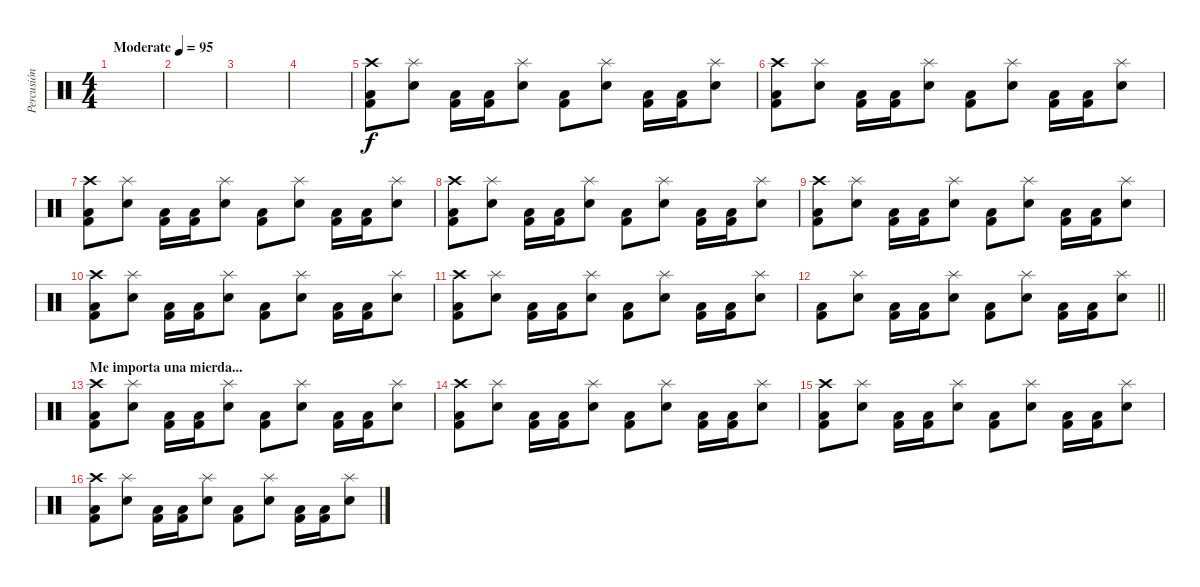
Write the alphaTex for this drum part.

\track ("Percusión" "Percusión") {instrument percussion}
\staff {score}
\articulation defaults
\ts (4 4)
\tempo (95 "Moderate")
\clef neutral
\ks c
|
|
|
|
("Crash high (hit)" "Low Floor Tom (hit)" "Kick (hit) 2").8 ("Splash (hit)" "Electric Snare (hit)").8 ("Low Floor Tom (hit)" "Kick (hit) 2").16 ("Low Floor Tom (hit)" "Kick (hit) 2").16 ("Splash (hit)" "Electric Snare (hit)").8 ("Low Floor Tom (hit)" "Kick (hit) 2").8 ("Splash (hit)" "Electric Snare (hit)").8 ("Low Floor Tom (hit)" "Kick (hit) 2").16 ("Low Floor Tom (hit)" "Kick (hit) 2").16 ("Splash (hit)" "Electric Snare (hit)").8 |
("Crash high (hit)" "Low Floor Tom (hit)" "Kick (hit) 2").8 ("Splash (hit)" "Electric Snare (hit)").8 ("Low Floor Tom (hit)" "Kick (hit) 2").16 ("Low Floor Tom (hit)" "Kick (hit) 2").16 ("Splash (hit)" "Electric Snare (hit)").8 ("Low Floor Tom (hit)" "Kick (hit) 2").8 ("Splash (hit)" "Electric Snare (hit)").8 ("Low Floor Tom (hit)" "Kick (hit) 2").16 ("Low Floor Tom (hit)" "Kick (hit) 2").16 ("Splash (hit)" "Electric Snare (hit)").8 |
("Crash high (hit)" "Low Floor Tom (hit)" "Kick (hit) 2").8 ("Splash (hit)" "Electric Snare (hit)").8 ("Low Floor Tom (hit)" "Kick (hit) 2").16 ("Low Floor Tom (hit)" "Kick (hit) 2").16 ("Splash (hit)" "Electric Snare (hit)").8 ("Low Floor Tom (hit)" "Kick (hit) 2").8 ("Splash (hit)" "Electric Snare (hit)").8 ("Low Floor Tom (hit)" "Kick (hit) 2").16 ("Low Floor Tom (hit)" "Kick (hit) 2").16 ("Splash (hit)" "Electric Snare (hit)").8 |
("Crash high (hit)" "Low Floor Tom (hit)" "Kick (hit) 2").8 ("Splash (hit)" "Electric Snare (hit)").8 ("Low Floor Tom (hit)" "Kick (hit) 2").16 ("Low Floor Tom (hit)" "Kick (hit) 2").16 ("Splash (hit)" "Electric Snare (hit)").8 ("Low Floor Tom (hit)" "Kick (hit) 2").8 ("Splash (hit)" "Electric Snare (hit)").8 ("Low Floor Tom (hit)" "Kick (hit) 2").16 ("Low Floor Tom (hit)" "Kick (hit) 2").16 ("Splash (hit)" "Electric Snare (hit)").8 |
("Crash high (hit)" "Low Floor Tom (hit)" "Kick (hit) 2").8 ("Splash (hit)" "Electric Snare (hit)").8 ("Low Floor Tom (hit)" "Kick (hit) 2").16 ("Low Floor Tom (hit)" "Kick (hit) 2").16 ("Splash (hit)" "Electric Snare (hit)").8 ("Low Floor Tom (hit)" "Kick (hit) 2").8 ("Splash (hit)" "Electric Snare (hit)").8 ("Low Floor Tom (hit)" "Kick (hit) 2").16 ("Low Floor Tom (hit)" "Kick (hit) 2").16 ("Splash (hit)" "Electric Snare (hit)").8 |
("Crash high (hit)" "Low Floor Tom (hit)" "Kick (hit) 2").8 ("Splash (hit)" "Electric Snare (hit)").8 ("Low Floor Tom (hit)" "Kick (hit) 2").16 ("Low Floor Tom (hit)" "Kick (hit) 2").16 ("Splash (hit)" "Electric Snare (hit)").8 ("Low Floor Tom (hit)" "Kick (hit) 2").8 ("Splash (hit)" "Electric Snare (hit)").8 ("Low Floor Tom (hit)" "Kick (hit) 2").16 ("Low Floor Tom (hit)" "Kick (hit) 2").16 ("Splash (hit)" "Electric Snare (hit)").8 |
("Crash high (hit)" "Low Floor Tom (hit)" "Kick (hit) 2").8 ("Splash (hit)" "Electric Snare (hit)").8 ("Low Floor Tom (hit)" "Kick (hit) 2").16 ("Low Floor Tom (hit)" "Kick (hit) 2").16 ("Splash (hit)" "Electric Snare (hit)").8 ("Low Floor Tom (hit)" "Kick (hit) 2").8 ("Splash (hit)" "Electric Snare (hit)").8 ("Low Floor Tom (hit)" "Kick (hit) 2").16 ("Low Floor Tom (hit)" "Kick (hit) 2").16 ("Splash (hit)" "Electric Snare (hit)").8 |
\barLineRight lightlight
("Low Floor Tom (hit)" "Kick (hit) 2").8 ("Splash (hit)" "Electric Snare (hit)").8 ("Low Floor Tom (hit)" "Kick (hit) 2").16 ("Low Floor Tom (hit)" "Kick (hit) 2").16 ("Splash (hit)" "Electric Snare (hit)").8 ("Low Floor Tom (hit)" "Kick (hit) 2").8 ("Splash (hit)" "Electric Snare (hit)").8 ("Low Floor Tom (hit)" "Kick (hit) 2").16 ("Low Floor Tom (hit)" "Kick (hit) 2").16 ("Splash (hit)" "Electric Snare (hit)").8 |
\section ("" "Me importa una mierda...")
("Crash high (hit)" "Low Floor Tom (hit)" "Kick (hit) 2").8 ("Splash (hit)" "Electric Snare (hit)").8 ("Low Floor Tom (hit)" "Kick (hit) 2").16 ("Low Floor Tom (hit)" "Kick (hit) 2").16 ("Splash (hit)" "Electric Snare (hit)").8 ("Low Floor Tom (hit)" "Kick (hit) 2").8 ("Splash (hit)" "Electric Snare (hit)").8 ("Low Floor Tom (hit)" "Kick (hit) 2").16 ("Low Floor Tom (hit)" "Kick (hit) 2").16 ("Splash (hit)" "Electric Snare (hit)").8 |
("Crash high (hit)" "Low Floor Tom (hit)" "Kick (hit) 2").8 ("Splash (hit)" "Electric Snare (hit)").8 ("Low Floor Tom (hit)" "Kick (hit) 2").16 ("Low Floor Tom (hit)" "Kick (hit) 2").16 ("Splash (hit)" "Electric Snare (hit)").8 ("Low Floor Tom (hit)" "Kick (hit) 2").8 ("Splash (hit)" "Electric Snare (hit)").8 ("Low Floor Tom (hit)" "Kick (hit) 2").16 ("Low Floor Tom (hit)" "Kick (hit) 2").16 ("Splash (hit)" "Electric Snare (hit)").8 |
("Crash high (hit)" "Low Floor Tom (hit)" "Kick (hit) 2").8 ("Splash (hit)" "Electric Snare (hit)").8 ("Low Floor Tom (hit)" "Kick (hit) 2").16 ("Low Floor Tom (hit)" "Kick (hit) 2").16 ("Splash (hit)" "Electric Snare (hit)").8 ("Low Floor Tom (hit)" "Kick (hit) 2").8 ("Splash (hit)" "Electric Snare (hit)").8 ("Low Floor Tom (hit)" "Kick (hit) 2").16 ("Low Floor Tom (hit)" "Kick (hit) 2").16 ("Splash (hit)" "Electric Snare (hit)").8 |
("Crash high (hit)" "Low Floor Tom (hit)" "Kick (hit) 2").8 ("Splash (hit)" "Electric Snare (hit)").8 ("Low Floor Tom (hit)" "Kick (hit) 2").16 ("Low Floor Tom (hit)" "Kick (hit) 2").16 ("Splash (hit)" "Electric Snare (hit)").8 ("Low Floor Tom (hit)" "Kick (hit) 2").8 ("Splash (hit)" "Electric Snare (hit)").8 ("Low Floor Tom (hit)" "Kick (hit) 2").16 ("Low Floor Tom (hit)" "Kick (hit) 2").16 ("Splash (hit)" "Electric Snare (hit)").8
